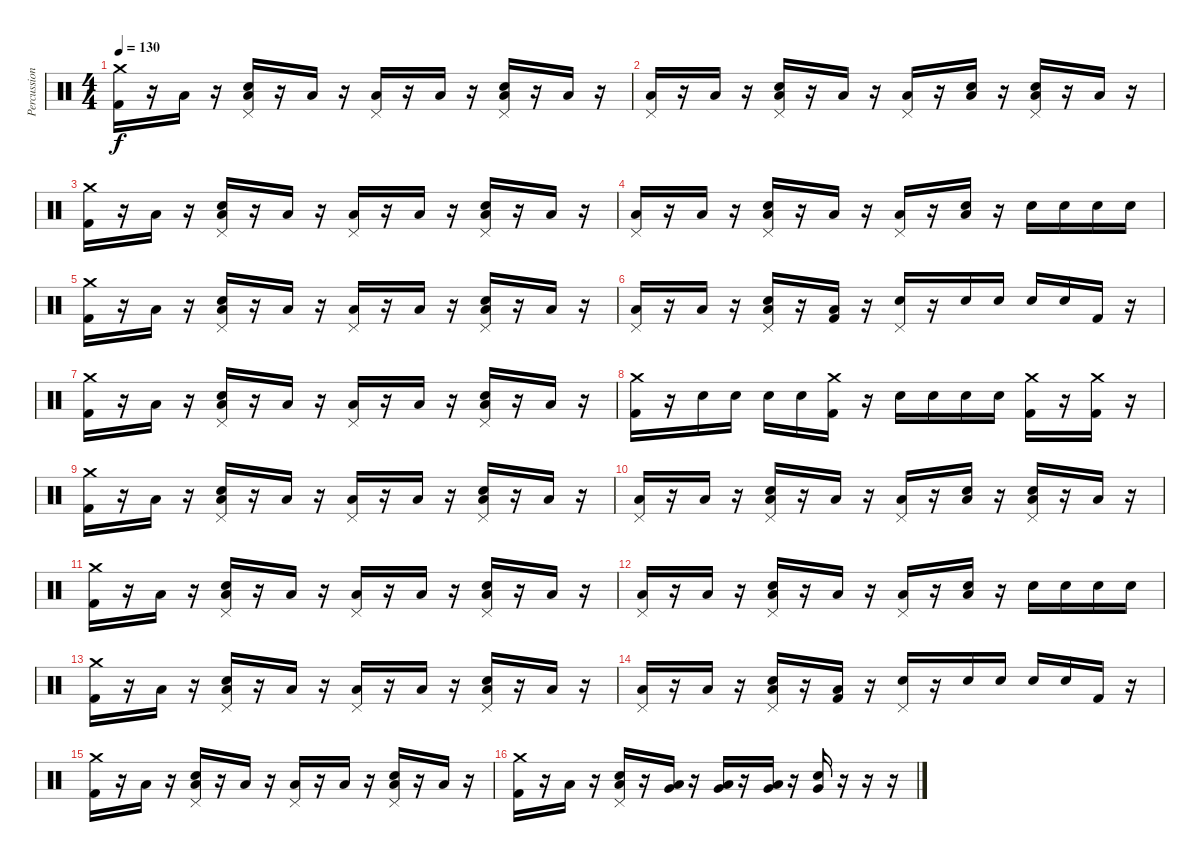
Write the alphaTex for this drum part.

\track ("Percussion" "Percussion") {instrument percussion}
\staff {score}
\articulation defaults
\ts (4 4)
\tempo 130
\clef neutral
\ks c
("Crash medium (hit)" "Kick (hit) 2").16{dy f} r.16 "Low Floor Tom (hit)".16 r.16 ("Electric Snare (hit)" "Low Floor Tom (hit)" "Pedal Hi-Hat (hit)").16 r.16 "Low Floor Tom (hit)".16 r.16 ("Low Floor Tom (hit)" "Pedal Hi-Hat (hit)").16 r.16 "Low Floor Tom (hit)".16 r.16 ("Electric Snare (hit)" "Low Floor Tom (hit)" "Pedal Hi-Hat (hit)").16 r.16 "Low Floor Tom (hit)".16 r.16 |
("Pedal Hi-Hat (hit)" "Low Floor Tom (hit)").16 r.16 "Low Floor Tom (hit)".16 r.16 ("Electric Snare (hit)" "Low Floor Tom (hit)" "Pedal Hi-Hat (hit)").16 r.16 "Low Floor Tom (hit)".16 r.16 ("Low Floor Tom (hit)" "Pedal Hi-Hat (hit)").16 r.16 ("Electric Snare (hit)" "Low Floor Tom (hit)").16 r.16 ("Electric Snare (hit)" "Low Floor Tom (hit)" "Pedal Hi-Hat (hit)").16 r.16 "Low Floor Tom (hit)".16 r.16 |
("Crash medium (hit)" "Kick (hit) 2").16 r.16 "Low Floor Tom (hit)".16 r.16 ("Electric Snare (hit)" "Low Floor Tom (hit)" "Pedal Hi-Hat (hit)").16 r.16 "Low Floor Tom (hit)".16 r.16 ("Low Floor Tom (hit)" "Pedal Hi-Hat (hit)").16 r.16 "Low Floor Tom (hit)".16 r.16 ("Electric Snare (hit)" "Low Floor Tom (hit)" "Pedal Hi-Hat (hit)").16 r.16 "Low Floor Tom (hit)".16 r.16 |
("Pedal Hi-Hat (hit)" "Low Floor Tom (hit)").16 r.16 "Low Floor Tom (hit)".16 r.16 ("Electric Snare (hit)" "Low Floor Tom (hit)" "Pedal Hi-Hat (hit)").16 r.16 "Low Floor Tom (hit)".16 r.16 ("Low Floor Tom (hit)" "Pedal Hi-Hat (hit)").16 r.16 ("Electric Snare (hit)" "Low Floor Tom (hit)").16 r.16 "Electric Snare (hit)".16 "Electric Snare (hit)".16 "Electric Snare (hit)".16 "Electric Snare (hit)".16 |
("Crash medium (hit)" "Kick (hit) 2").16 r.16 "Low Floor Tom (hit)".16 r.16 ("Electric Snare (hit)" "Low Floor Tom (hit)" "Pedal Hi-Hat (hit)").16 r.16 "Low Floor Tom (hit)".16 r.16 ("Low Floor Tom (hit)" "Pedal Hi-Hat (hit)").16 r.16 "Low Floor Tom (hit)".16 r.16 ("Electric Snare (hit)" "Low Floor Tom (hit)" "Pedal Hi-Hat (hit)").16 r.16 "Low Floor Tom (hit)".16 r.16 |
("Pedal Hi-Hat (hit)" "Low Floor Tom (hit)").16 r.16 "Low Floor Tom (hit)".16 r.16 ("Electric Snare (hit)" "Low Floor Tom (hit)" "Pedal Hi-Hat (hit)").16 r.16 ("Low Floor Tom (hit)" "Kick (hit) 2").16 r.16 ("Electric Snare (hit)" "Pedal Hi-Hat (hit)").16 r.16 "Electric Snare (hit)".16 "Electric Snare (hit)".16 "Electric Snare (hit)".16 "Electric Snare (hit)".16 "Kick (hit) 2".16 r.16 |
("Crash medium (hit)" "Kick (hit) 2").16 r.16 "Low Floor Tom (hit)".16 r.16 ("Electric Snare (hit)" "Low Floor Tom (hit)" "Pedal Hi-Hat (hit)").16 r.16 "Low Floor Tom (hit)".16 r.16 ("Low Floor Tom (hit)" "Pedal Hi-Hat (hit)").16 r.16 "Low Floor Tom (hit)".16 r.16 ("Electric Snare (hit)" "Low Floor Tom (hit)" "Pedal Hi-Hat (hit)").16 r.16 "Low Floor Tom (hit)".16 r.16 |
("Crash medium (hit)" "Kick (hit) 2").16 r.16 "Electric Snare (hit)".16 "Electric Snare (hit)".16 "Electric Snare (hit)".16 "Electric Snare (hit)".16 ("Crash medium (hit)" "Kick (hit) 2").16 r.16 "Electric Snare (hit)".16 "Electric Snare (hit)".16 "Electric Snare (hit)".16 "Electric Snare (hit)".16 ("Crash medium (hit)" "Kick (hit) 2").16 r.16 ("Crash medium (hit)" "Kick (hit) 2").16 r.16 |
("Crash medium (hit)" "Kick (hit) 2").16 r.16 "Low Floor Tom (hit)".16 r.16 ("Electric Snare (hit)" "Low Floor Tom (hit)" "Pedal Hi-Hat (hit)").16 r.16 "Low Floor Tom (hit)".16 r.16 ("Low Floor Tom (hit)" "Pedal Hi-Hat (hit)").16 r.16 "Low Floor Tom (hit)".16 r.16 ("Electric Snare (hit)" "Low Floor Tom (hit)" "Pedal Hi-Hat (hit)").16 r.16 "Low Floor Tom (hit)".16 r.16 |
("Pedal Hi-Hat (hit)" "Low Floor Tom (hit)").16 r.16 "Low Floor Tom (hit)".16 r.16 ("Electric Snare (hit)" "Low Floor Tom (hit)" "Pedal Hi-Hat (hit)").16 r.16 "Low Floor Tom (hit)".16 r.16 ("Low Floor Tom (hit)" "Pedal Hi-Hat (hit)").16 r.16 ("Electric Snare (hit)" "Low Floor Tom (hit)").16 r.16 ("Electric Snare (hit)" "Low Floor Tom (hit)" "Pedal Hi-Hat (hit)").16 r.16 "Low Floor Tom (hit)".16 r.16 |
("Crash medium (hit)" "Kick (hit) 2").16 r.16 "Low Floor Tom (hit)".16 r.16 ("Electric Snare (hit)" "Low Floor Tom (hit)" "Pedal Hi-Hat (hit)").16 r.16 "Low Floor Tom (hit)".16 r.16 ("Low Floor Tom (hit)" "Pedal Hi-Hat (hit)").16 r.16 "Low Floor Tom (hit)".16 r.16 ("Electric Snare (hit)" "Low Floor Tom (hit)" "Pedal Hi-Hat (hit)").16 r.16 "Low Floor Tom (hit)".16 r.16 |
("Pedal Hi-Hat (hit)" "Low Floor Tom (hit)").16 r.16 "Low Floor Tom (hit)".16 r.16 ("Electric Snare (hit)" "Low Floor Tom (hit)" "Pedal Hi-Hat (hit)").16 r.16 "Low Floor Tom (hit)".16 r.16 ("Low Floor Tom (hit)" "Pedal Hi-Hat (hit)").16 r.16 ("Electric Snare (hit)" "Low Floor Tom (hit)").16 r.16 "Electric Snare (hit)".16 "Electric Snare (hit)".16 "Electric Snare (hit)".16 "Electric Snare (hit)".16 |
("Crash medium (hit)" "Kick (hit) 2").16 r.16 "Low Floor Tom (hit)".16 r.16 ("Electric Snare (hit)" "Low Floor Tom (hit)" "Pedal Hi-Hat (hit)").16 r.16 "Low Floor Tom (hit)".16 r.16 ("Low Floor Tom (hit)" "Pedal Hi-Hat (hit)").16 r.16 "Low Floor Tom (hit)".16 r.16 ("Electric Snare (hit)" "Low Floor Tom (hit)" "Pedal Hi-Hat (hit)").16 r.16 "Low Floor Tom (hit)".16 r.16 |
("Pedal Hi-Hat (hit)" "Low Floor Tom (hit)").16 r.16 "Low Floor Tom (hit)".16 r.16 ("Electric Snare (hit)" "Low Floor Tom (hit)" "Pedal Hi-Hat (hit)").16 r.16 ("Low Floor Tom (hit)" "Kick (hit) 2").16 r.16 ("Electric Snare (hit)" "Pedal Hi-Hat (hit)").16 r.16 "Electric Snare (hit)".16 "Electric Snare (hit)".16 "Electric Snare (hit)".16 "Electric Snare (hit)".16 "Kick (hit) 2".16 r.16 |
("Crash medium (hit)" "Kick (hit) 2").16 r.16 "Low Floor Tom (hit)".16 r.16 ("Electric Snare (hit)" "Low Floor Tom (hit)" "Pedal Hi-Hat (hit)").16 r.16 "Low Floor Tom (hit)".16 r.16 ("Low Floor Tom (hit)" "Pedal Hi-Hat (hit)").16 r.16 "Low Floor Tom (hit)".16 r.16 ("Electric Snare (hit)" "Low Floor Tom (hit)" "Pedal Hi-Hat (hit)").16 r.16 "Low Floor Tom (hit)".16 r.16 |
("Crash medium (hit)" "Kick (hit) 2").16 r.16 "Low Floor Tom (hit)".16 r.16 ("Electric Snare (hit)" "Low Floor Tom (hit)" "Pedal Hi-Hat (hit)").16 r.16 ("Very Low Tom (hit)" "Low Floor Tom (hit)").16 r.16 ("Very Low Tom (hit)" "Low Floor Tom (hit)").16 r.16 ("Very Low Tom (hit)" "Low Floor Tom (hit)").16 r.16 ("Very Low Tom (hit)" "Electric Snare (hit)").16 r.16 r.16 r.16
